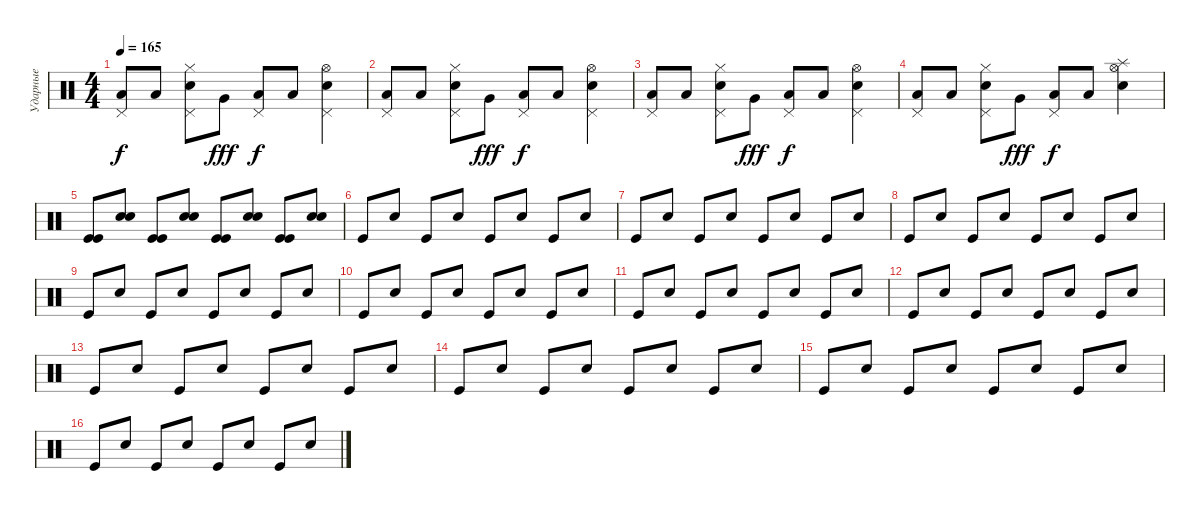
\track ("Ударные" "Ударные") {instrument percussion}
\staff {score}
\articulation defaults
\ts (4 4)
\tempo 165
\clef neutral
\ks c
("Pedal Hi-Hat (hit)" "Low Floor Tom (hit)").8{dy f} "Low Floor Tom (hit)".8 ("Pedal Hi-Hat (hit)" "Electric Snare (hit)" "Hi-Hat (closed)").8 "Very Low Tom (hit)".8{dy fff} ("Pedal Hi-Hat (hit)" "Low Floor Tom (hit)").8{dy f} "Low Floor Tom (hit)".8 ("Pedal Hi-Hat (hit)" "Electric Snare (hit)" "Hi-Hat (open)").4 |
("Pedal Hi-Hat (hit)" "Low Floor Tom (hit)").8 "Low Floor Tom (hit)".8 ("Pedal Hi-Hat (hit)" "Electric Snare (hit)" "Hi-Hat (closed)").8 "Very Low Tom (hit)".8{dy fff} ("Pedal Hi-Hat (hit)" "Low Floor Tom (hit)").8{dy f} "Low Floor Tom (hit)".8 ("Pedal Hi-Hat (hit)" "Electric Snare (hit)" "Hi-Hat (open)").4 |
("Pedal Hi-Hat (hit)" "Low Floor Tom (hit)").8 "Low Floor Tom (hit)".8 ("Pedal Hi-Hat (hit)" "Electric Snare (hit)" "Hi-Hat (closed)").8 "Very Low Tom (hit)".8{dy fff} ("Pedal Hi-Hat (hit)" "Low Floor Tom (hit)").8{dy f} "Low Floor Tom (hit)".8 ("Electric Snare (hit)" "Pedal Hi-Hat (hit)" "Hi-Hat (open)").4 |
("Pedal Hi-Hat (hit)" "Low Floor Tom (hit)").8 "Low Floor Tom (hit)".8 ("Pedal Hi-Hat (hit)" "Electric Snare (hit)" "Hi-Hat (closed)").8 "Very Low Tom (hit)".8{dy fff} ("Pedal Hi-Hat (hit)" "Low Floor Tom (hit)").8{dy f} "Low Floor Tom (hit)".8 ("Electric Snare (hit)" "Splash (hit)" "Hi-Hat (open)").4 |
("Kick (hit)" "Kick (hit)").8 ("Snare (hit) 2" "Snare (hit) 2").8{volume 8} ("Kick (hit)" "Kick (hit)").8 ("Snare (hit) 2" "Snare (hit) 2").8 ("Kick (hit)" "Kick (hit)").8 ("Snare (hit) 2" "Snare (hit) 2").8 ("Kick (hit)" "Kick (hit)").8 ("Snare (hit) 2" "Snare (hit) 2").8{volume 8} |
"Kick (hit)".8 "Snare (hit) 2".8 "Kick (hit)".8 "Snare (hit) 2".8 "Kick (hit)".8 "Snare (hit) 2".8{volume 8} "Kick (hit)".8 "Snare (hit) 2".8 |
"Kick (hit)".8 "Snare (hit) 2".8 "Kick (hit)".8 "Snare (hit) 2".8{volume 8} "Kick (hit)".8 "Snare (hit) 2".8 "Kick (hit)".8 "Snare (hit) 2".8 |
"Kick (hit)".8{volume 8} "Snare (hit) 2".8 "Kick (hit)".8 "Snare (hit) 2".8 "Kick (hit)".8 "Snare (hit) 2".8 "Kick (hit)".8{volume 7} "Snare (hit) 2".8 |
"Kick (hit)".8 "Snare (hit) 2".8 "Kick (hit)".8 "Snare (hit) 2".8 "Kick (hit)".8{volume 7} "Snare (hit) 2".8 "Kick (hit)".8 "Snare (hit) 2".8 |
"Kick (hit)".8 "Snare (hit) 2".8 "Kick (hit)".8{volume 7} "Snare (hit) 2".8 "Kick (hit)".8 "Snare (hit) 2".8 "Kick (hit)".8 "Snare (hit) 2".8 |
"Kick (hit)".8{volume 7} "Snare (hit) 2".8 "Kick (hit)".8 "Snare (hit) 2".8 "Kick (hit)".8 "Snare (hit) 2".8 "Kick (hit)".8{volume 7} "Snare (hit) 2".8 |
"Kick (hit)".8 "Snare (hit) 2".8 "Kick (hit)".8 "Snare (hit) 2".8 "Kick (hit)".8{volume 7} "Snare (hit) 2".8 "Kick (hit)".8 "Snare (hit) 2".8 |
"Kick (hit)".8 "Snare (hit) 2".8 "Kick (hit)".8{volume 7} "Snare (hit) 2".8 "Kick (hit)".8 "Snare (hit) 2".8 "Kick (hit)".8 "Snare (hit) 2".8 |
"Kick (hit)".8{volume 6} "Snare (hit) 2".8 "Kick (hit)".8 "Snare (hit) 2".8 "Kick (hit)".8 "Snare (hit) 2".8 "Kick (hit)".8{volume 6} "Snare (hit) 2".8 |
"Kick (hit)".8 "Snare (hit) 2".8 "Kick (hit)".8 "Snare (hit) 2".8 "Kick (hit)".8{volume 6} "Snare (hit) 2".8 "Kick (hit)".8 "Snare (hit) 2".8 |
"Kick (hit)".8 "Snare (hit) 2".8 "Kick (hit)".8{volume 6} "Snare (hit) 2".8 "Kick (hit)".8 "Snare (hit) 2".8 "Kick (hit)".8 "Snare (hit) 2".8
